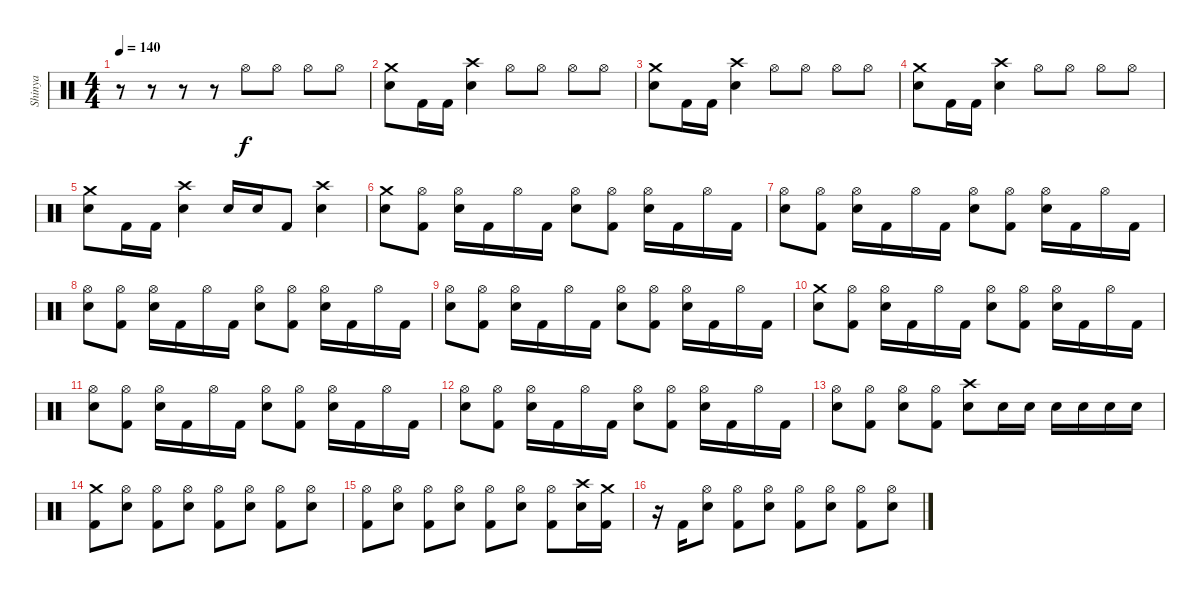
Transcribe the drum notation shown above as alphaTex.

\track ("Shinya" "Shinya") {instrument percussion}
\staff {score}
\articulation defaults
\ts (4 4)
\tempo 140
\clef neutral
\ks c
r.8{dy f} r.8 r.8 r.8 "Hi-Hat (open)".8 "Hi-Hat (open)".8 "Hi-Hat (open)".8 "Hi-Hat (open)".8 |
("Crash medium (hit)" "Snare (hit) 2").8 "Kick (hit) 2".16 "Kick (hit) 2".16 ("Crash high (hit)" "Snare (hit) 2").4 "Hi-Hat (open)".8 "Hi-Hat (open)".8 "Hi-Hat (open)".8 "Hi-Hat (open)".8 |
("Crash medium (hit)" "Snare (hit) 2").8 "Kick (hit) 2".16 "Kick (hit) 2".16 ("Crash high (hit)" "Snare (hit) 2").4 "Hi-Hat (open)".8 "Hi-Hat (open)".8 "Hi-Hat (open)".8 "Hi-Hat (open)".8 |
("Crash medium (hit)" "Snare (hit) 2").8 "Kick (hit) 2".16 "Kick (hit) 2".16 ("Crash high (hit)" "Snare (hit) 2").4 "Hi-Hat (open)".8 "Hi-Hat (open)".8 "Hi-Hat (open)".8 "Hi-Hat (open)".8 |
("Crash medium (hit)" "Snare (hit) 2").8 "Kick (hit) 2".16 "Kick (hit) 2".16 ("Crash high (hit)" "Snare (hit) 2").4 "Snare (hit) 2".16 "Snare (hit) 2".16 "Kick (hit) 2".8 ("Crash high (hit)" "Snare (hit) 2").4 |
("Crash medium (hit)" "Snare (hit) 2").8 ("Hi-Hat (open)" "Kick (hit) 2").8 ("Hi-Hat (open)" "Snare (hit) 2").16 "Kick (hit) 2".16 "Hi-Hat (open)".16 "Kick (hit) 2".16 ("Hi-Hat (open)" "Snare (hit) 2").8 ("Hi-Hat (open)" "Kick (hit) 2").8 ("Hi-Hat (open)" "Snare (hit) 2").16 "Kick (hit) 2".16 "Hi-Hat (open)".16 "Kick (hit) 2".16 |
("Hi-Hat (open)" "Snare (hit) 2").8 ("Hi-Hat (open)" "Kick (hit) 2").8 ("Hi-Hat (open)" "Snare (hit) 2").16 "Kick (hit) 2".16 "Hi-Hat (open)".16 "Kick (hit) 2".16 ("Hi-Hat (open)" "Snare (hit) 2").8 ("Hi-Hat (open)" "Kick (hit) 2").8 ("Hi-Hat (open)" "Snare (hit) 2").16 "Kick (hit) 2".16 "Hi-Hat (open)".16 "Kick (hit) 2".16 |
("Hi-Hat (open)" "Snare (hit) 2").8 ("Hi-Hat (open)" "Kick (hit) 2").8 ("Hi-Hat (open)" "Snare (hit) 2").16 "Kick (hit) 2".16 "Hi-Hat (open)".16 "Kick (hit) 2".16 ("Hi-Hat (open)" "Snare (hit) 2").8 ("Hi-Hat (open)" "Kick (hit) 2").8 ("Hi-Hat (open)" "Snare (hit) 2").16 "Kick (hit) 2".16 "Hi-Hat (open)".16 "Kick (hit) 2".16 |
("Hi-Hat (open)" "Snare (hit) 2").8 ("Hi-Hat (open)" "Kick (hit) 2").8 ("Hi-Hat (open)" "Snare (hit) 2").16 "Kick (hit) 2".16 "Hi-Hat (open)".16 "Kick (hit) 2".16 ("Hi-Hat (open)" "Snare (hit) 2").8 ("Hi-Hat (open)" "Kick (hit) 2").8 ("Hi-Hat (open)" "Snare (hit) 2").16 "Kick (hit) 2".16 "Hi-Hat (open)".16 "Kick (hit) 2".16 |
("Crash medium (hit)" "Snare (hit) 2").8 ("Hi-Hat (open)" "Kick (hit) 2").8 ("Hi-Hat (open)" "Snare (hit) 2").16 "Kick (hit) 2".16 "Hi-Hat (open)".16 "Kick (hit) 2".16 ("Hi-Hat (open)" "Snare (hit) 2").8 ("Hi-Hat (open)" "Kick (hit) 2").8 ("Hi-Hat (open)" "Snare (hit) 2").16 "Kick (hit) 2".16 "Hi-Hat (open)".16 "Kick (hit) 2".16 |
("Hi-Hat (open)" "Snare (hit) 2").8 ("Hi-Hat (open)" "Kick (hit) 2").8 ("Hi-Hat (open)" "Snare (hit) 2").16 "Kick (hit) 2".16 "Hi-Hat (open)".16 "Kick (hit) 2".16 ("Hi-Hat (open)" "Snare (hit) 2").8 ("Hi-Hat (open)" "Kick (hit) 2").8 ("Hi-Hat (open)" "Snare (hit) 2").16 "Kick (hit) 2".16 "Hi-Hat (open)".16 "Kick (hit) 2".16 |
("Hi-Hat (open)" "Snare (hit) 2").8 ("Hi-Hat (open)" "Kick (hit) 2").8 ("Hi-Hat (open)" "Snare (hit) 2").16 "Kick (hit) 2".16 "Hi-Hat (open)".16 "Kick (hit) 2".16 ("Hi-Hat (open)" "Snare (hit) 2").8 ("Hi-Hat (open)" "Kick (hit) 2").8 ("Hi-Hat (open)" "Snare (hit) 2").16 "Kick (hit) 2".16 "Hi-Hat (open)".16 "Kick (hit) 2".16 |
("Hi-Hat (open)" "Snare (hit) 2").8 ("Hi-Hat (open)" "Kick (hit) 2").8 ("Hi-Hat (open)" "Snare (hit) 2").8 ("Hi-Hat (open)" "Kick (hit) 2").8 ("Crash high (hit)" "Snare (hit) 2").8 "Snare (hit) 2".16 "Snare (hit) 2".16 "Snare (hit) 2".16 "Snare (hit) 2".16 "Snare (hit) 2".16 "Snare (hit) 2".16 |
("Crash medium (hit)" "Kick (hit) 2").8 ("Hi-Hat (open)" "Snare (hit) 2").8 ("Hi-Hat (open)" "Kick (hit) 2").8 ("Hi-Hat (open)" "Snare (hit) 2").8 ("Hi-Hat (open)" "Kick (hit) 2").8 ("Hi-Hat (open)" "Snare (hit) 2").8 ("Hi-Hat (open)" "Kick (hit) 2").8 ("Hi-Hat (open)" "Snare (hit) 2").8 |
("Hi-Hat (open)" "Kick (hit) 2").8 ("Hi-Hat (open)" "Snare (hit) 2").8 ("Hi-Hat (open)" "Kick (hit) 2").8 ("Hi-Hat (open)" "Snare (hit) 2").8 ("Hi-Hat (open)" "Kick (hit) 2").8 ("Hi-Hat (open)" "Snare (hit) 2").8 ("Hi-Hat (open)" "Kick (hit) 2").8 ("Crash high (hit)" "Snare (hit) 2").16 ("Crash medium (hit)" "Kick (hit) 2").16 |
r.16 "Kick (hit) 2".16 ("Hi-Hat (open)" "Snare (hit) 2").8 ("Hi-Hat (open)" "Kick (hit) 2").8 ("Hi-Hat (open)" "Snare (hit) 2").8 ("Hi-Hat (open)" "Kick (hit) 2").8 ("Hi-Hat (open)" "Snare (hit) 2").8 ("Hi-Hat (open)" "Kick (hit) 2").8 ("Hi-Hat (open)" "Snare (hit) 2").8
